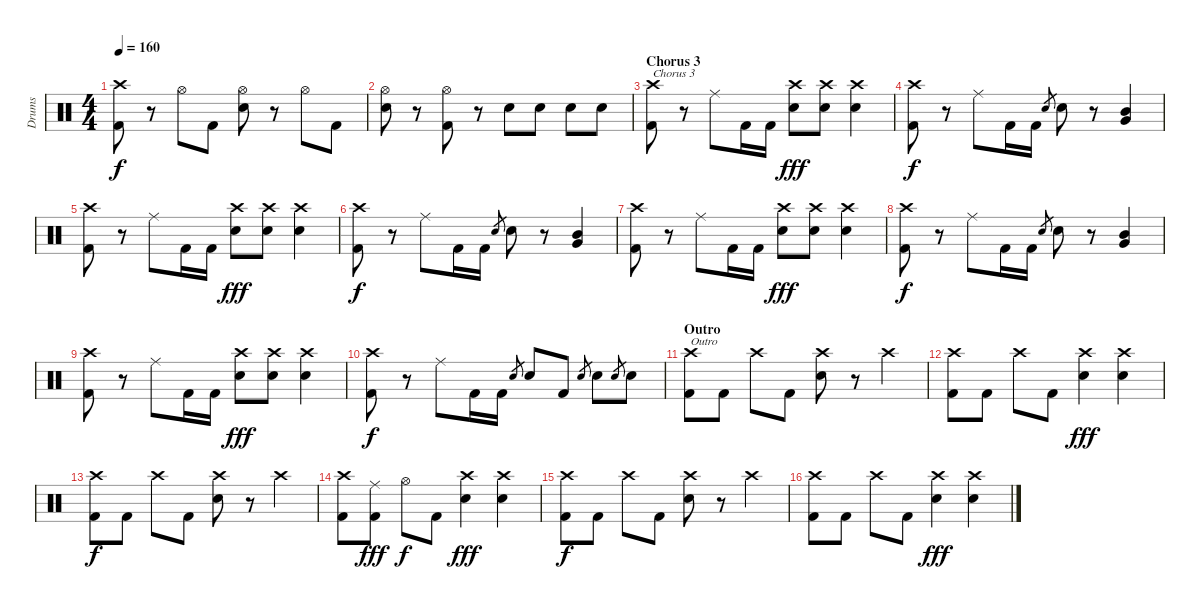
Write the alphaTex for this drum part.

\track ("Drums" "Drums") {instrument percussion}
\staff {score}
\articulation defaults
\ts (4 4)
\tempo 160
\clef neutral
\ks c
("Crash high (hit)" "Kick (hit) 2").8{dy f} r.8 "Hi-Hat (open)".8 "Kick (hit) 2".8 ("Hi-Hat (open)" "Electric Snare (hit)").8 r.8 "Hi-Hat (open)".8 "Kick (hit) 2".8 |
("Hi-Hat (open)" "Electric Snare (hit)").8 r.8 ("Hi-Hat (open)" "Kick (hit) 2").8 r.8 "Electric Snare (hit)".8 "Electric Snare (hit)".8 "Electric Snare (hit)".8 "Electric Snare (hit)".8 |
\section ("" "Chorus 3")
("Crash high (hit)" "Kick (hit) 2").8{txt "Chorus 3"} r.8 "Ride (middle)".8 "Kick (hit) 2".16 "Kick (hit) 2".16 ("Crash high (hit)" "Electric Snare (hit)").8{dy fff} ("Crash high (hit)" "Electric Snare (hit)").8 ("Crash high (hit)" "Electric Snare (hit)").4 |
("Crash high (hit)" "Kick (hit) 2").8{dy f} r.8 "Ride (middle)".8 "Kick (hit) 2".16 "Kick (hit) 2".16 "Electric Snare (hit)".8{gr} "Electric Snare (hit)".8 r.8 ("Mid Tom (hit)" "Very Low Tom (hit)").4 |
("Crash high (hit)" "Kick (hit) 2").8 r.8 "Ride (middle)".8 "Kick (hit) 2".16 "Kick (hit) 2".16 ("Crash high (hit)" "Electric Snare (hit)").8{dy fff} ("Crash high (hit)" "Electric Snare (hit)").8 ("Crash high (hit)" "Electric Snare (hit)").4 |
("Crash high (hit)" "Kick (hit) 2").8{dy f} r.8 "Ride (middle)".8 "Kick (hit) 2".16 "Kick (hit) 2".16 "Electric Snare (hit)".8{gr} "Electric Snare (hit)".8 r.8 ("Mid Tom (hit)" "Very Low Tom (hit)").4 |
("Crash high (hit)" "Kick (hit) 2").8 r.8 "Ride (middle)".8 "Kick (hit) 2".16 "Kick (hit) 2".16 ("Crash high (hit)" "Electric Snare (hit)").8{dy fff} ("Crash high (hit)" "Electric Snare (hit)").8 ("Crash high (hit)" "Electric Snare (hit)").4 |
("Crash high (hit)" "Kick (hit) 2").8{dy f} r.8 "Ride (middle)".8 "Kick (hit) 2".16 "Kick (hit) 2".16 "Electric Snare (hit)".8{gr} "Electric Snare (hit)".8 r.8 ("Mid Tom (hit)" "Very Low Tom (hit)").4 |
("Crash high (hit)" "Kick (hit) 2").8 r.8 "Ride (middle)".8 "Kick (hit) 2".16 "Kick (hit) 2".16 ("Crash high (hit)" "Electric Snare (hit)").8{dy fff} ("Crash high (hit)" "Electric Snare (hit)").8 ("Crash high (hit)" "Electric Snare (hit)").4 |
("Crash high (hit)" "Kick (hit) 2").8{dy f} r.8 "Ride (middle)".8 "Kick (hit) 2".16 "Kick (hit) 2".16 "Electric Snare (hit)".8{gr} "Electric Snare (hit)".8 "Kick (hit) 2".8 "Electric Snare (hit)".8{gr} "Electric Snare (hit)".8 "Electric Snare (hit)".8{gr} "Electric Snare (hit)".8 |
\section ("" "Outro")
("Crash high (hit)" "Kick (hit) 2").8{txt "Outro"} "Kick (hit) 2".8 "Crash high (hit)".8 "Kick (hit) 2".8 ("Crash high (hit)" "Electric Snare (hit)").8 r.8 "Crash high (hit)".4 |
("Crash high (hit)" "Kick (hit) 2").8 "Kick (hit) 2".8 "Crash high (hit)".8 "Kick (hit) 2".8 ("Crash high (hit)" "Electric Snare (hit)").4{dy fff} ("Crash high (hit)" "Electric Snare (hit)").4 |
("Crash high (hit)" "Kick (hit) 2").8{dy f} "Kick (hit) 2".8 "Crash high (hit)".8 "Kick (hit) 2".8 ("Crash high (hit)" "Electric Snare (hit)").8 r.8 "Crash high (hit)".4 |
("Crash high (hit)" "Kick (hit) 2").8 ("Ride (middle)" "Kick (hit) 2").8{dy fff} "Hi-Hat (open)".8{dy f} "Kick (hit) 2".8 ("Crash high (hit)" "Electric Snare (hit)").4{dy fff} ("Crash high (hit)" "Electric Snare (hit)").4 |
("Crash high (hit)" "Kick (hit) 2").8{dy f} "Kick (hit) 2".8 "Crash high (hit)".8 "Kick (hit) 2".8 ("Crash high (hit)" "Electric Snare (hit)").8 r.8 "Crash high (hit)".4 |
("Crash high (hit)" "Kick (hit) 2").8 "Kick (hit) 2".8 "Crash high (hit)".8 "Kick (hit) 2".8 ("Crash high (hit)" "Electric Snare (hit)").4{dy fff} ("Crash high (hit)" "Electric Snare (hit)").4
